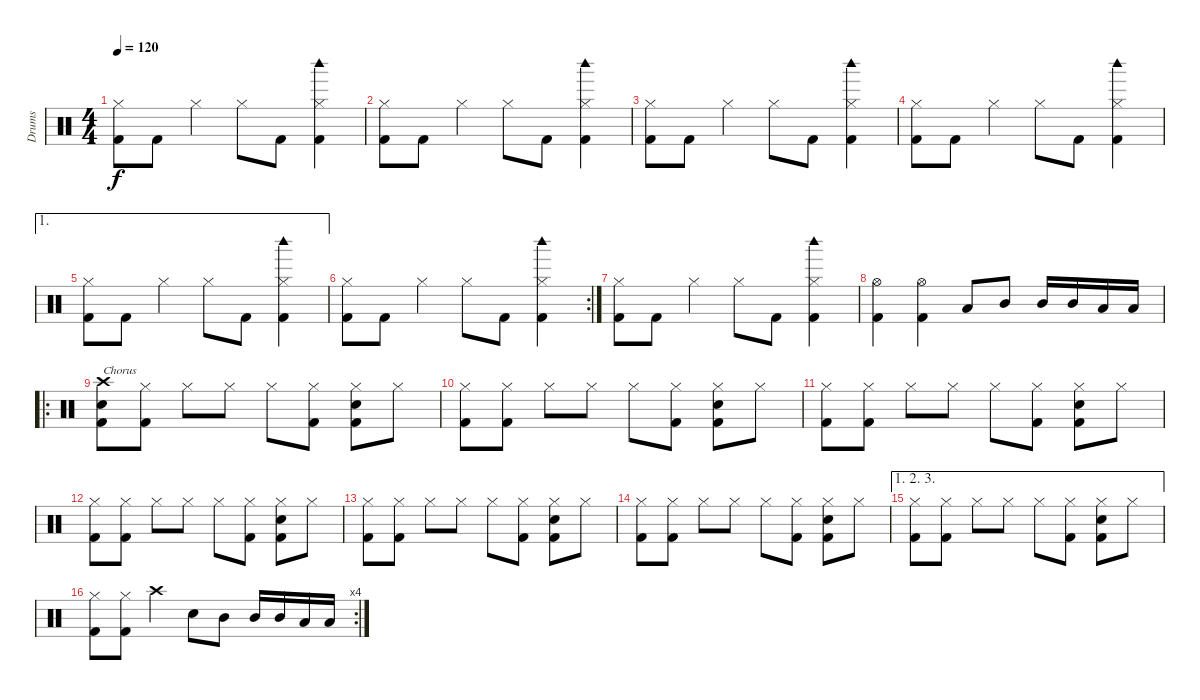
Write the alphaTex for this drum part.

\track ("Drums" "Drums") {instrument percussion}
\staff {score}
\articulation defaults
\ts (4 4)
\tempo 120
\clef neutral
\ks c
("Hi-Hat (closed)" "Kick (hit) 2").8{dy f} "Kick (hit) 2".8 "Hi-Hat (closed)".4 "Hi-Hat (closed)".8 "Kick (hit) 2".8 ("Hi-Hat (closed)" "Woodblock high (hit)" "Kick (hit) 2").4 |
("Hi-Hat (closed)" "Kick (hit) 2").8 "Kick (hit) 2".8 "Hi-Hat (closed)".4 "Hi-Hat (closed)".8 "Kick (hit) 2".8 ("Hi-Hat (closed)" "Woodblock high (hit)" "Kick (hit) 2").4 |
("Hi-Hat (closed)" "Kick (hit) 2").8 "Kick (hit) 2".8 "Hi-Hat (closed)".4 "Hi-Hat (closed)".8 "Kick (hit) 2".8 ("Hi-Hat (closed)" "Woodblock high (hit)" "Kick (hit) 2").4 |
("Hi-Hat (closed)" "Kick (hit) 2").8 "Kick (hit) 2".8 "Hi-Hat (closed)".4 "Hi-Hat (closed)".8 "Kick (hit) 2".8 ("Hi-Hat (closed)" "Woodblock high (hit)" "Kick (hit) 2").4 |
\ae 1
("Hi-Hat (closed)" "Kick (hit) 2").8 "Kick (hit) 2".8 "Hi-Hat (closed)".4 "Hi-Hat (closed)".8 "Kick (hit) 2".8 ("Hi-Hat (closed)" "Woodblock high (hit)" "Kick (hit) 2").4 |
\rc 2
("Hi-Hat (closed)" "Kick (hit) 2").8 "Kick (hit) 2".8 "Hi-Hat (closed)".4 "Hi-Hat (closed)".8 "Kick (hit) 2".8 ("Hi-Hat (closed)" "Woodblock high (hit)" "Kick (hit) 2").4 |
("Hi-Hat (closed)" "Kick (hit) 2").8 "Kick (hit) 2".8 "Hi-Hat (closed)".4 "Hi-Hat (closed)".8 "Kick (hit) 2".8 ("Hi-Hat (closed)" "Woodblock high (hit)" "Kick (hit) 2").4 |
("Hi-Hat (open)" "Kick (hit) 2").4 ("Hi-Hat (open)" "Kick (hit) 2").4 "Low Tom (hit)".8 "Mid Tom (hit)".8 "Mid Tom (hit)".16 "Mid Tom (hit)".16 "Low Tom (hit)".16 "Low Tom (hit)".16 |
\ro
("Crash high (hit)" "Snare (hit) 2" "Kick (hit) 2").8{txt "Chorus"} ("Hi-Hat (closed)" "Kick (hit) 2").8 "Hi-Hat (closed)".8 "Hi-Hat (closed)".8 "Hi-Hat (closed)".8 ("Hi-Hat (closed)" "Kick (hit) 2").8 ("Hi-Hat (closed)" "Snare (hit) 2" "Kick (hit) 2").8 "Hi-Hat (closed)".8 |
("Hi-Hat (closed)" "Kick (hit) 2").8 ("Hi-Hat (closed)" "Kick (hit) 2").8 "Hi-Hat (closed)".8 "Hi-Hat (closed)".8 "Hi-Hat (closed)".8 ("Hi-Hat (closed)" "Kick (hit) 2").8 ("Hi-Hat (closed)" "Snare (hit) 2" "Kick (hit) 2").8 "Hi-Hat (closed)".8 |
("Hi-Hat (closed)" "Kick (hit) 2").8 ("Hi-Hat (closed)" "Kick (hit) 2").8 "Hi-Hat (closed)".8 "Hi-Hat (closed)".8 "Hi-Hat (closed)".8 ("Hi-Hat (closed)" "Kick (hit) 2").8 ("Hi-Hat (closed)" "Snare (hit) 2" "Kick (hit) 2").8 "Hi-Hat (closed)".8 |
("Hi-Hat (closed)" "Kick (hit) 2").8 ("Hi-Hat (closed)" "Kick (hit) 2").8 "Hi-Hat (closed)".8 "Hi-Hat (closed)".8 "Hi-Hat (closed)".8 ("Hi-Hat (closed)" "Kick (hit) 2").8 ("Hi-Hat (closed)" "Snare (hit) 2" "Kick (hit) 2").8 "Hi-Hat (closed)".8 |
("Hi-Hat (closed)" "Kick (hit) 2").8 ("Hi-Hat (closed)" "Kick (hit) 2").8 "Hi-Hat (closed)".8 "Hi-Hat (closed)".8 "Hi-Hat (closed)".8 ("Hi-Hat (closed)" "Kick (hit) 2").8 ("Hi-Hat (closed)" "Snare (hit) 2" "Kick (hit) 2").8 "Hi-Hat (closed)".8 |
("Hi-Hat (closed)" "Kick (hit) 2").8 ("Hi-Hat (closed)" "Kick (hit) 2").8 "Hi-Hat (closed)".8 "Hi-Hat (closed)".8 "Hi-Hat (closed)".8 ("Hi-Hat (closed)" "Kick (hit) 2").8 ("Hi-Hat (closed)" "Snare (hit) 2" "Kick (hit) 2").8 "Hi-Hat (closed)".8 |
\ae (1 2 3)
("Hi-Hat (closed)" "Kick (hit) 2").8 ("Hi-Hat (closed)" "Kick (hit) 2").8 "Hi-Hat (closed)".8 "Hi-Hat (closed)".8 "Hi-Hat (closed)".8 ("Hi-Hat (closed)" "Kick (hit) 2").8 ("Hi-Hat (closed)" "Snare (hit) 2" "Kick (hit) 2").8 "Hi-Hat (closed)".8 |
\rc 4
("Hi-Hat (closed)" "Kick (hit) 2").8 ("Hi-Hat (closed)" "Kick (hit) 2").8 "Crash high (hit)".4 "Snare (hit) 2".8 "Mid Tom (hit)".8 "Mid Tom (hit)".16 "Mid Tom (hit)".16 "Low Tom (hit)".16 "Low Tom (hit)".16
